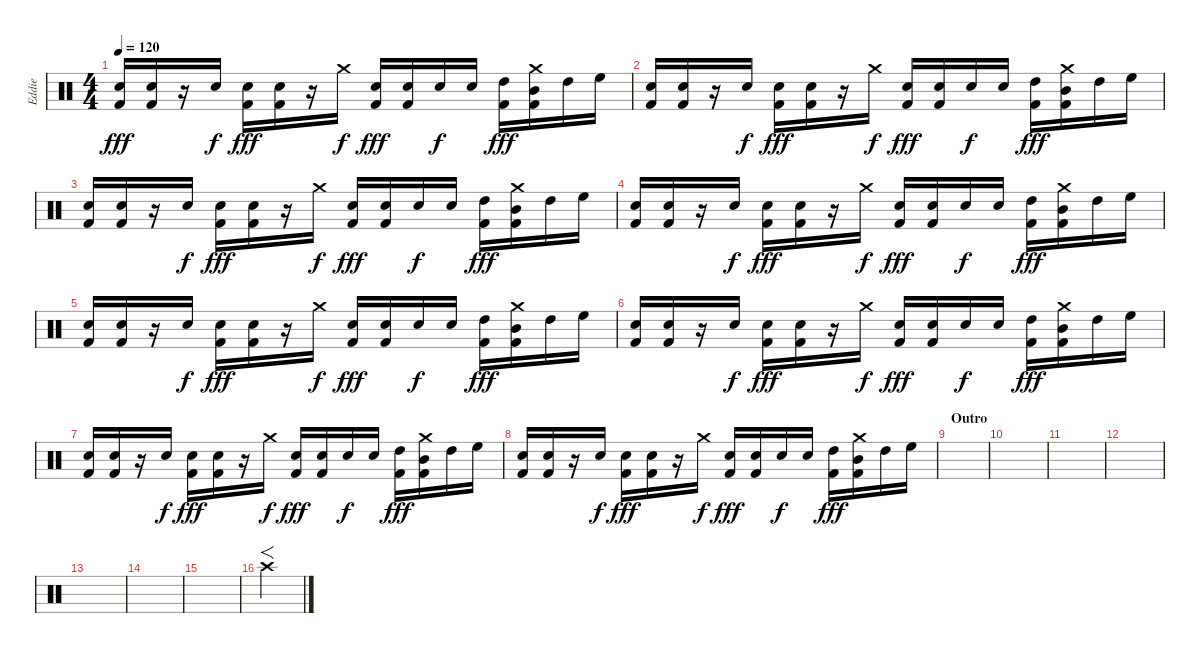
\track ("Eddie" "Eddie") {instrument percussion}
\staff {score}
\articulation defaults
\ts (4 4)
\tempo 120
\clef neutral
\ks c
("Snare (hit) 2" "Kick (hit) 2").16{dy fff} ("Electric Snare (hit)" "Kick (hit) 2").16 r.16 "Electric Snare (hit)".16{dy f} ("Snare (hit) 2" "Kick (hit) 2").16{dy fff} ("Electric Snare (hit)" "Kick (hit) 2").16 r.16 "Crash medium (hit)".16{dy f} ("Snare (hit) 2" "Kick (hit) 2").16{dy fff} ("Electric Snare (hit)" "Kick (hit) 2").16 "Snare (hit) 2".16{dy f} "Electric Snare (hit)".16 ("High Tom (hit)" "Kick (hit) 2").16{dy fff} ("Mid Tom (hit)" "Crash medium (hit)" "Kick (hit) 2").16 "High Tom (hit)".16 "High Floor Tom (hit)".16 |
("Snare (hit) 2" "Kick (hit) 2").16 ("Electric Snare (hit)" "Kick (hit) 2").16 r.16 "Electric Snare (hit)".16{dy f} ("Snare (hit) 2" "Kick (hit) 2").16{dy fff} ("Electric Snare (hit)" "Kick (hit) 2").16 r.16 "Crash medium (hit)".16{dy f} ("Snare (hit) 2" "Kick (hit) 2").16{dy fff} ("Electric Snare (hit)" "Kick (hit) 2").16 "Snare (hit) 2".16{dy f} "Electric Snare (hit)".16 ("High Tom (hit)" "Kick (hit) 2").16{dy fff} ("Mid Tom (hit)" "Crash medium (hit)" "Kick (hit) 2").16 "High Tom (hit)".16 "High Floor Tom (hit)".16 |
("Snare (hit) 2" "Kick (hit) 2").16 ("Electric Snare (hit)" "Kick (hit) 2").16 r.16 "Electric Snare (hit)".16{dy f} ("Snare (hit) 2" "Kick (hit) 2").16{dy fff} ("Electric Snare (hit)" "Kick (hit) 2").16 r.16 "Crash medium (hit)".16{dy f} ("Snare (hit) 2" "Kick (hit) 2").16{dy fff} ("Electric Snare (hit)" "Kick (hit) 2").16 "Snare (hit) 2".16{dy f} "Electric Snare (hit)".16 ("High Tom (hit)" "Kick (hit) 2").16{dy fff} ("Mid Tom (hit)" "Crash medium (hit)" "Kick (hit) 2").16 "High Tom (hit)".16 "High Floor Tom (hit)".16 |
("Snare (hit) 2" "Kick (hit) 2").16 ("Electric Snare (hit)" "Kick (hit) 2").16 r.16 "Electric Snare (hit)".16{dy f} ("Snare (hit) 2" "Kick (hit) 2").16{dy fff} ("Electric Snare (hit)" "Kick (hit) 2").16 r.16 "Crash medium (hit)".16{dy f} ("Snare (hit) 2" "Kick (hit) 2").16{dy fff} ("Electric Snare (hit)" "Kick (hit) 2").16 "Snare (hit) 2".16{dy f} "Electric Snare (hit)".16 ("High Tom (hit)" "Kick (hit) 2").16{dy fff} ("Mid Tom (hit)" "Crash medium (hit)" "Kick (hit) 2").16 "High Tom (hit)".16 "High Floor Tom (hit)".16 |
("Snare (hit) 2" "Kick (hit) 2").16 ("Electric Snare (hit)" "Kick (hit) 2").16 r.16 "Electric Snare (hit)".16{dy f} ("Snare (hit) 2" "Kick (hit) 2").16{dy fff} ("Electric Snare (hit)" "Kick (hit) 2").16 r.16 "Crash medium (hit)".16{dy f} ("Snare (hit) 2" "Kick (hit) 2").16{dy fff} ("Electric Snare (hit)" "Kick (hit) 2").16 "Snare (hit) 2".16{dy f} "Electric Snare (hit)".16 ("High Tom (hit)" "Kick (hit) 2").16{dy fff} ("Mid Tom (hit)" "Crash medium (hit)" "Kick (hit) 2").16 "High Tom (hit)".16 "High Floor Tom (hit)".16 |
("Snare (hit) 2" "Kick (hit) 2").16 ("Electric Snare (hit)" "Kick (hit) 2").16 r.16 "Electric Snare (hit)".16{dy f} ("Snare (hit) 2" "Kick (hit) 2").16{dy fff} ("Electric Snare (hit)" "Kick (hit) 2").16 r.16 "Crash medium (hit)".16{dy f} ("Snare (hit) 2" "Kick (hit) 2").16{dy fff} ("Electric Snare (hit)" "Kick (hit) 2").16 "Snare (hit) 2".16{dy f} "Electric Snare (hit)".16 ("High Tom (hit)" "Kick (hit) 2").16{dy fff} ("Mid Tom (hit)" "Crash medium (hit)" "Kick (hit) 2").16 "High Tom (hit)".16 "High Floor Tom (hit)".16 |
("Snare (hit) 2" "Kick (hit) 2").16 ("Electric Snare (hit)" "Kick (hit) 2").16 r.16 "Electric Snare (hit)".16{dy f} ("Snare (hit) 2" "Kick (hit) 2").16{dy fff} ("Electric Snare (hit)" "Kick (hit) 2").16 r.16 "Crash medium (hit)".16{dy f} ("Snare (hit) 2" "Kick (hit) 2").16{dy fff} ("Electric Snare (hit)" "Kick (hit) 2").16 "Snare (hit) 2".16{dy f} "Electric Snare (hit)".16 ("High Tom (hit)" "Kick (hit) 2").16{dy fff} ("Mid Tom (hit)" "Crash medium (hit)" "Kick (hit) 2").16 "High Tom (hit)".16 "High Floor Tom (hit)".16 |
("Snare (hit) 2" "Kick (hit) 2").16 ("Electric Snare (hit)" "Kick (hit) 2").16 r.16 "Electric Snare (hit)".16{dy f} ("Snare (hit) 2" "Kick (hit) 2").16{dy fff} ("Electric Snare (hit)" "Kick (hit) 2").16 r.16 "Crash medium (hit)".16{dy f} ("Snare (hit) 2" "Kick (hit) 2").16{dy fff} ("Electric Snare (hit)" "Kick (hit) 2").16 "Snare (hit) 2".16{dy f} "Electric Snare (hit)".16 ("High Tom (hit)" "Kick (hit) 2").16{dy fff} ("Mid Tom (hit)" "Crash medium (hit)" "Kick (hit) 2").16 "High Tom (hit)".16 "High Floor Tom (hit)".16 |
\section ("" "Outro")
|
|
|
|
|
|
|
"Crash high (hit)".4{f}
